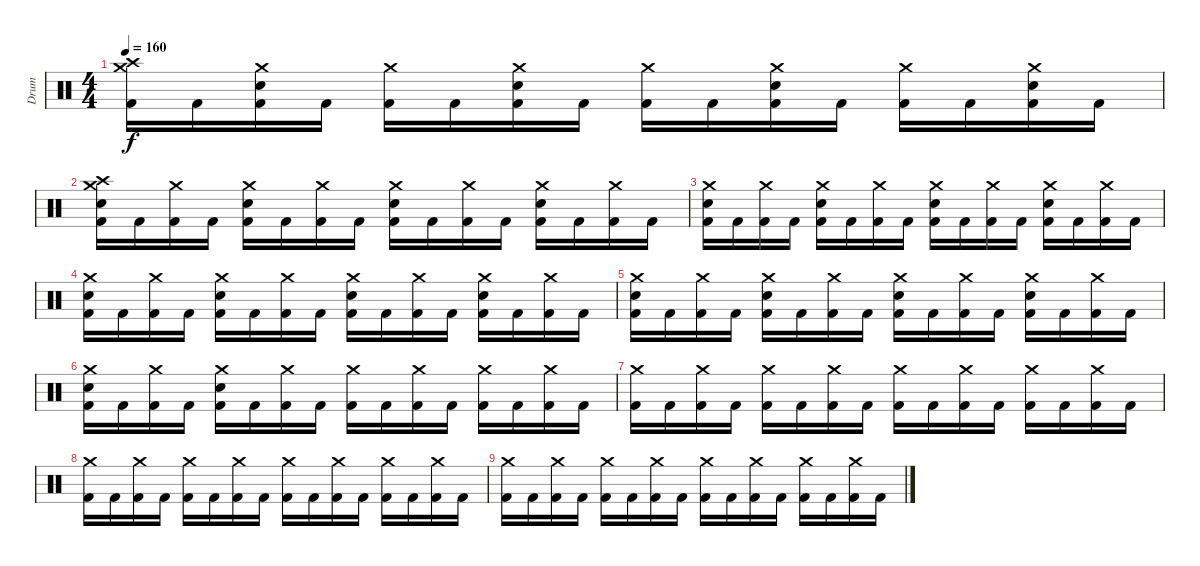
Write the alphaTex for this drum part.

\track ("Drum" "Drum") {instrument percussion}
\staff {score}
\articulation defaults
\ts (4 4)
\tempo 160
\clef neutral
\ks c
("Crash high (hit)" "Crash medium (hit)" "Kick (hit) 2").16{dy f} "Kick (hit) 2".16 ("Crash medium (hit)" "Kick (hit) 2" "Electric Snare (hit)").16 "Kick (hit) 2".16 ("Crash medium (hit)" "Kick (hit) 2").16 "Kick (hit) 2".16 ("Crash medium (hit)" "Kick (hit) 2" "Electric Snare (hit)").16 "Kick (hit) 2".16 ("Crash medium (hit)" "Kick (hit) 2").16 "Kick (hit) 2".16 ("Crash medium (hit)" "Kick (hit) 2" "Electric Snare (hit)").16 "Kick (hit) 2".16 ("Crash medium (hit)" "Kick (hit) 2").16 "Kick (hit) 2".16 ("Crash medium (hit)" "Kick (hit) 2" "Electric Snare (hit)").16 "Kick (hit) 2".16 |
("Crash high (hit)" "Crash medium (hit)" "Kick (hit) 2" "Electric Snare (hit)").16 "Kick (hit) 2".16 ("Crash medium (hit)" "Kick (hit) 2").16 "Kick (hit) 2".16 ("Crash medium (hit)" "Kick (hit) 2" "Electric Snare (hit)").16 "Kick (hit) 2".16 ("Crash medium (hit)" "Kick (hit) 2").16 "Kick (hit) 2".16 ("Crash medium (hit)" "Kick (hit) 2" "Electric Snare (hit)").16 "Kick (hit) 2".16 ("Crash medium (hit)" "Kick (hit) 2").16 "Kick (hit) 2".16 ("Crash medium (hit)" "Kick (hit) 2" "Electric Snare (hit)").16 "Kick (hit) 2".16 ("Crash medium (hit)" "Kick (hit) 2").16 "Kick (hit) 2".16 |
("Crash medium (hit)" "Kick (hit) 2" "Electric Snare (hit)").16 "Kick (hit) 2".16 ("Crash medium (hit)" "Kick (hit) 2").16 "Kick (hit) 2".16 ("Crash medium (hit)" "Kick (hit) 2" "Electric Snare (hit)").16 "Kick (hit) 2".16 ("Crash medium (hit)" "Kick (hit) 2").16 "Kick (hit) 2".16 ("Crash medium (hit)" "Kick (hit) 2" "Electric Snare (hit)").16 "Kick (hit) 2".16 ("Crash medium (hit)" "Kick (hit) 2").16 "Kick (hit) 2".16 ("Crash medium (hit)" "Kick (hit) 2" "Electric Snare (hit)").16 "Kick (hit) 2".16 ("Crash medium (hit)" "Kick (hit) 2").16 "Kick (hit) 2".16 |
("Crash medium (hit)" "Kick (hit) 2" "Electric Snare (hit)").16 "Kick (hit) 2".16 ("Crash medium (hit)" "Kick (hit) 2").16 "Kick (hit) 2".16 ("Crash medium (hit)" "Kick (hit) 2" "Electric Snare (hit)").16 "Kick (hit) 2".16 ("Crash medium (hit)" "Kick (hit) 2").16 "Kick (hit) 2".16 ("Crash medium (hit)" "Kick (hit) 2" "Electric Snare (hit)").16 "Kick (hit) 2".16 ("Crash medium (hit)" "Kick (hit) 2").16 "Kick (hit) 2".16 ("Crash medium (hit)" "Kick (hit) 2" "Electric Snare (hit)").16 "Kick (hit) 2".16 ("Crash medium (hit)" "Kick (hit) 2").16 "Kick (hit) 2".16 |
("Crash medium (hit)" "Kick (hit) 2" "Electric Snare (hit)").16 "Kick (hit) 2".16 ("Crash medium (hit)" "Kick (hit) 2").16 "Kick (hit) 2".16 ("Crash medium (hit)" "Kick (hit) 2" "Electric Snare (hit)").16 "Kick (hit) 2".16 ("Crash medium (hit)" "Kick (hit) 2").16 "Kick (hit) 2".16 ("Crash medium (hit)" "Kick (hit) 2" "Electric Snare (hit)").16 "Kick (hit) 2".16 ("Crash medium (hit)" "Kick (hit) 2").16 "Kick (hit) 2".16 ("Crash medium (hit)" "Kick (hit) 2" "Electric Snare (hit)").16 "Kick (hit) 2".16 ("Crash medium (hit)" "Kick (hit) 2").16 "Kick (hit) 2".16 |
("Crash medium (hit)" "Kick (hit) 2" "Electric Snare (hit)").16 "Kick (hit) 2".16 ("Crash medium (hit)" "Kick (hit) 2").16 "Kick (hit) 2".16 ("Crash medium (hit)" "Kick (hit) 2" "Electric Snare (hit)").16 "Kick (hit) 2".16 ("Crash medium (hit)" "Kick (hit) 2").16 "Kick (hit) 2".16 ("Crash medium (hit)" "Kick (hit) 2").16 "Kick (hit) 2".16 ("Crash medium (hit)" "Kick (hit) 2").16 "Kick (hit) 2".16 ("Crash medium (hit)" "Kick (hit) 2").16 "Kick (hit) 2".16 ("Crash medium (hit)" "Kick (hit) 2").16 "Kick (hit) 2".16 |
("Crash medium (hit)" "Kick (hit) 2").16 "Kick (hit) 2".16 ("Crash medium (hit)" "Kick (hit) 2").16 "Kick (hit) 2".16 ("Crash medium (hit)" "Kick (hit) 2").16 "Kick (hit) 2".16 ("Crash medium (hit)" "Kick (hit) 2").16 "Kick (hit) 2".16 ("Crash medium (hit)" "Kick (hit) 2").16 "Kick (hit) 2".16 ("Crash medium (hit)" "Kick (hit) 2").16 "Kick (hit) 2".16 ("Crash medium (hit)" "Kick (hit) 2").16 "Kick (hit) 2".16 ("Crash medium (hit)" "Kick (hit) 2").16 "Kick (hit) 2".16 |
("Crash medium (hit)" "Kick (hit) 2").16 "Kick (hit) 2".16 ("Crash medium (hit)" "Kick (hit) 2").16 "Kick (hit) 2".16 ("Crash medium (hit)" "Kick (hit) 2").16 "Kick (hit) 2".16 ("Crash medium (hit)" "Kick (hit) 2").16 "Kick (hit) 2".16 ("Crash medium (hit)" "Kick (hit) 2").16 "Kick (hit) 2".16 ("Crash medium (hit)" "Kick (hit) 2").16 "Kick (hit) 2".16 ("Crash medium (hit)" "Kick (hit) 2").16 "Kick (hit) 2".16 ("Crash medium (hit)" "Kick (hit) 2").16 "Kick (hit) 2".16 |
("Crash medium (hit)" "Kick (hit) 2").16 "Kick (hit) 2".16 ("Crash medium (hit)" "Kick (hit) 2").16 "Kick (hit) 2".16 ("Crash medium (hit)" "Kick (hit) 2").16 "Kick (hit) 2".16 ("Crash medium (hit)" "Kick (hit) 2").16 "Kick (hit) 2".16 ("Crash medium (hit)" "Kick (hit) 2").16 "Kick (hit) 2".16 ("Crash medium (hit)" "Kick (hit) 2").16 "Kick (hit) 2".16 ("Crash medium (hit)" "Kick (hit) 2").16 "Kick (hit) 2".16 ("Crash medium (hit)" "Kick (hit) 2").16 "Kick (hit) 2".16
